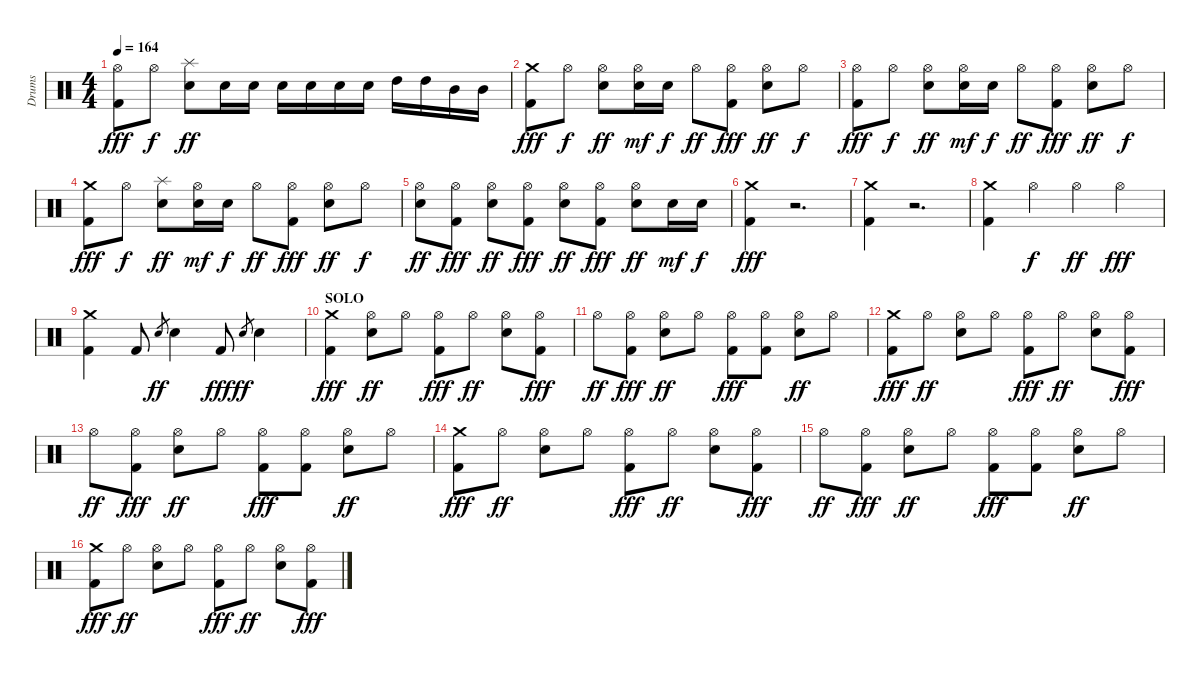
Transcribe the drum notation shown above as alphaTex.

\track ("Drums" "Drums") {instrument percussion}
\staff {score}
\articulation defaults
\ts (4 4)
\tempo 164
\clef neutral
\ks c
("Hi-Hat (open)" "Kick (hit) 2").8{dy fff} "Hi-Hat (open)".8{dy f} ("Splash (hit)" "Snare (hit) 2").8{dy ff} "Snare (hit) 2".16 "Snare (hit) 2".16 "Snare (hit) 2".16 "Snare (hit) 2".16 "Snare (hit) 2".16 "Snare (hit) 2".16 "High Tom (hit)".16 "High Tom (hit)".16 "Mid Tom (hit)".16 "Mid Tom (hit)".16 |
("Crash medium (hit)" "Kick (hit) 2").8{dy fff} "Hi-Hat (open)".8{dy f} ("Hi-Hat (open)" "Snare (hit) 2").8{dy ff} ("Hi-Hat (open)" "Snare (hit) 2").16{dy mf} "Snare (hit) 2".16{dy f} "Hi-Hat (open)".8{dy ff} ("Hi-Hat (open)" "Kick (hit) 2").8{dy fff} ("Hi-Hat (open)" "Snare (hit) 2").8{dy ff} "Hi-Hat (open)".8{dy f} |
("Hi-Hat (open)" "Kick (hit) 2").8{dy fff} "Hi-Hat (open)".8{dy f} ("Hi-Hat (open)" "Snare (hit) 2").8{dy ff} ("Hi-Hat (open)" "Snare (hit) 2").16{dy mf} "Snare (hit) 2".16{dy f} "Hi-Hat (open)".8{dy ff} ("Hi-Hat (open)" "Kick (hit) 2").8{dy fff} ("Hi-Hat (open)" "Snare (hit) 2").8{dy ff} "Hi-Hat (open)".8{dy f} |
("Crash medium (hit)" "Kick (hit) 2").8{dy fff} "Hi-Hat (open)".8{dy f} ("Splash (hit)" "Snare (hit) 2").8{dy ff} ("Hi-Hat (open)" "Snare (hit) 2").16{dy mf} "Snare (hit) 2".16{dy f} "Hi-Hat (open)".8{dy ff} ("Hi-Hat (open)" "Kick (hit) 2").8{dy fff} ("Hi-Hat (open)" "Snare (hit) 2").8{dy ff} "Hi-Hat (open)".8{dy f} |
("Hi-Hat (open)" "Snare (hit) 2").8{dy ff} ("Hi-Hat (open)" "Kick (hit) 2").8{dy fff} ("Hi-Hat (open)" "Snare (hit) 2").8{dy ff} ("Hi-Hat (open)" "Kick (hit) 2").8{dy fff} ("Hi-Hat (open)" "Snare (hit) 2").8{dy ff} ("Hi-Hat (open)" "Kick (hit) 2").8{dy fff} ("Hi-Hat (open)" "Snare (hit) 2").8{dy ff} "Snare (hit) 2".16{dy mf} "Snare (hit) 2".16{dy f} |
("Crash medium (hit)" "Kick (hit) 2").4{dy fff} r.2{d} |
("Crash medium (hit)" "Kick (hit) 2").4 r.2{d} |
("Crash medium (hit)" "Kick (hit) 2").4 "Hi-Hat (open)".4{dy f} "Hi-Hat (open)".4{dy ff} "Hi-Hat (open)".4{dy fff} |
("Crash medium (hit)" "Kick (hit) 2").4 "Kick (hit) 2".8 "Snare (hit) 2".8{gr dy ff} "Snare (hit) 2".4 "Kick (hit) 2".8{dy fff} "Snare (hit) 2".8{gr dy ff} "Snare (hit) 2".4 |
\section ("" "SOLO")
("Crash medium (hit)" "Kick (hit) 2").4{dy fff} ("Hi-Hat (open)" "Snare (hit) 2").8{dy ff} "Hi-Hat (open)".8 ("Hi-Hat (open)" "Kick (hit) 2").8{dy fff} "Hi-Hat (open)".8{dy ff} ("Hi-Hat (open)" "Snare (hit) 2").8 ("Hi-Hat (open)" "Kick (hit) 2").8{dy fff} |
"Hi-Hat (open)".8{dy ff} ("Hi-Hat (open)" "Kick (hit) 2").8{dy fff} ("Hi-Hat (open)" "Snare (hit) 2").8{dy ff} "Hi-Hat (open)".8 ("Hi-Hat (open)" "Kick (hit) 2").8{dy fff} ("Hi-Hat (open)" "Kick (hit) 2").8 ("Hi-Hat (open)" "Snare (hit) 2").8{dy ff} "Hi-Hat (open)".8 |
("Crash medium (hit)" "Kick (hit) 2").8{dy fff} "Hi-Hat (open)".8{dy ff} ("Hi-Hat (open)" "Snare (hit) 2").8 "Hi-Hat (open)".8 ("Hi-Hat (open)" "Kick (hit) 2").8{dy fff} "Hi-Hat (open)".8{dy ff} ("Hi-Hat (open)" "Snare (hit) 2").8 ("Hi-Hat (open)" "Kick (hit) 2").8{dy fff} |
"Hi-Hat (open)".8{dy ff} ("Hi-Hat (open)" "Kick (hit) 2").8{dy fff} ("Hi-Hat (open)" "Snare (hit) 2").8{dy ff} "Hi-Hat (open)".8 ("Hi-Hat (open)" "Kick (hit) 2").8{dy fff} ("Hi-Hat (open)" "Kick (hit) 2").8 ("Hi-Hat (open)" "Snare (hit) 2").8{dy ff} "Hi-Hat (open)".8 |
("Crash medium (hit)" "Kick (hit) 2").8{dy fff} "Hi-Hat (open)".8{dy ff} ("Hi-Hat (open)" "Snare (hit) 2").8 "Hi-Hat (open)".8 ("Hi-Hat (open)" "Kick (hit) 2").8{dy fff} "Hi-Hat (open)".8{dy ff} ("Hi-Hat (open)" "Snare (hit) 2").8 ("Hi-Hat (open)" "Kick (hit) 2").8{dy fff} |
"Hi-Hat (open)".8{dy ff} ("Hi-Hat (open)" "Kick (hit) 2").8{dy fff} ("Hi-Hat (open)" "Snare (hit) 2").8{dy ff} "Hi-Hat (open)".8 ("Hi-Hat (open)" "Kick (hit) 2").8{dy fff} ("Hi-Hat (open)" "Kick (hit) 2").8 ("Hi-Hat (open)" "Snare (hit) 2").8{dy ff} "Hi-Hat (open)".8 |
("Crash medium (hit)" "Kick (hit) 2").8{dy fff} "Hi-Hat (open)".8{dy ff} ("Hi-Hat (open)" "Snare (hit) 2").8 "Hi-Hat (open)".8 ("Hi-Hat (open)" "Kick (hit) 2").8{dy fff} "Hi-Hat (open)".8{dy ff} ("Hi-Hat (open)" "Snare (hit) 2").8 ("Hi-Hat (open)" "Kick (hit) 2").8{dy fff}
